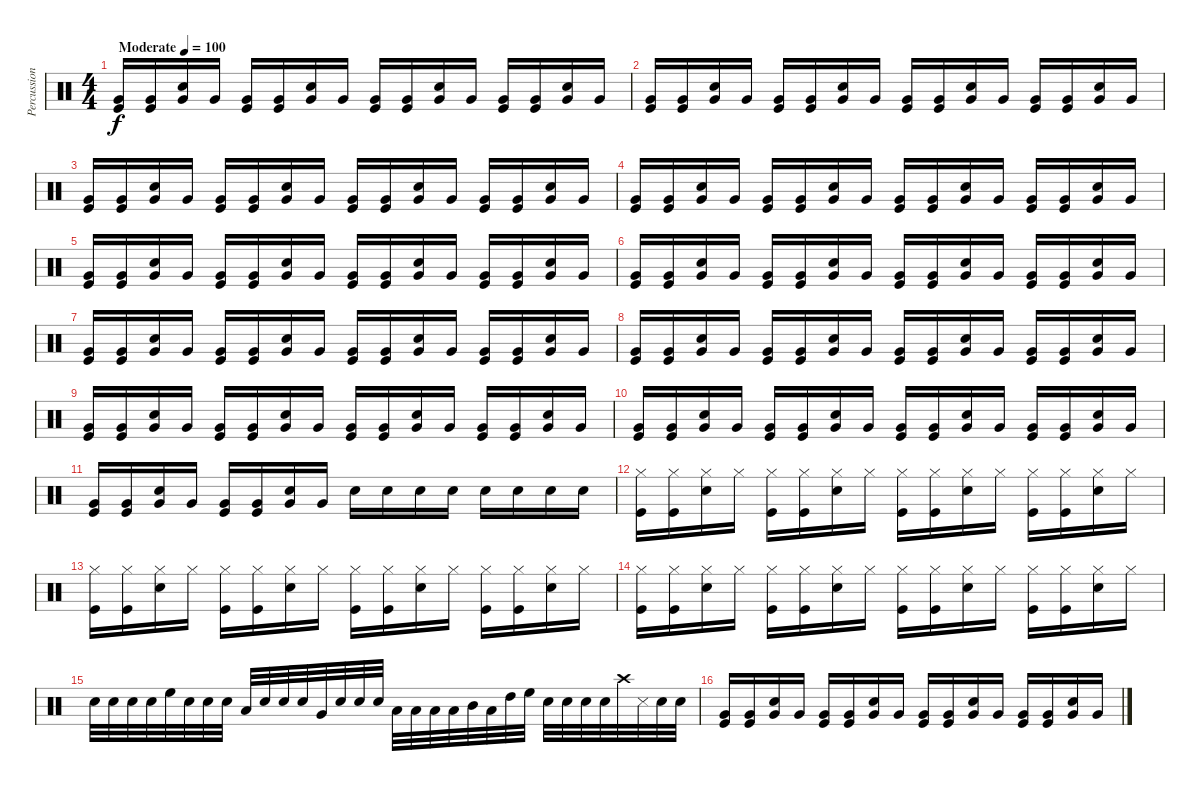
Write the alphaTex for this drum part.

\track ("Percussion" "Percussion") {instrument percussion}
\staff {score}
\articulation defaults
\ts (4 4)
\tempo (100 "Moderate")
\clef neutral
\ks c
("Very Low Tom (hit)" "Kick (hit)").16{dy f} ("Very Low Tom (hit)" "Kick (hit)").16 ("Very Low Tom (hit)" "Snare (hit) 2").16 "Very Low Tom (hit)".16 ("Very Low Tom (hit)" "Kick (hit)").16 ("Very Low Tom (hit)" "Kick (hit)").16 ("Very Low Tom (hit)" "Snare (hit) 2").16 "Very Low Tom (hit)".16 ("Very Low Tom (hit)" "Kick (hit)").16 ("Very Low Tom (hit)" "Kick (hit)").16 ("Very Low Tom (hit)" "Snare (hit) 2").16 "Very Low Tom (hit)".16 ("Very Low Tom (hit)" "Kick (hit)").16 ("Very Low Tom (hit)" "Kick (hit)").16 ("Very Low Tom (hit)" "Snare (hit) 2").16 "Very Low Tom (hit)".16 |
("Very Low Tom (hit)" "Kick (hit)").16 ("Very Low Tom (hit)" "Kick (hit)").16 ("Very Low Tom (hit)" "Snare (hit) 2").16 "Very Low Tom (hit)".16 ("Very Low Tom (hit)" "Kick (hit)").16 ("Very Low Tom (hit)" "Kick (hit)").16 ("Very Low Tom (hit)" "Snare (hit) 2").16 "Very Low Tom (hit)".16 ("Very Low Tom (hit)" "Kick (hit)").16 ("Very Low Tom (hit)" "Kick (hit)").16 ("Very Low Tom (hit)" "Snare (hit) 2").16 "Very Low Tom (hit)".16 ("Very Low Tom (hit)" "Kick (hit)").16 ("Very Low Tom (hit)" "Kick (hit)").16 ("Very Low Tom (hit)" "Snare (hit) 2").16 "Very Low Tom (hit)".16 |
("Very Low Tom (hit)" "Kick (hit)").16 ("Very Low Tom (hit)" "Kick (hit)").16 ("Very Low Tom (hit)" "Snare (hit) 2").16 "Very Low Tom (hit)".16 ("Very Low Tom (hit)" "Kick (hit)").16 ("Very Low Tom (hit)" "Kick (hit)").16 ("Very Low Tom (hit)" "Snare (hit) 2").16 "Very Low Tom (hit)".16 ("Very Low Tom (hit)" "Kick (hit)").16 ("Very Low Tom (hit)" "Kick (hit)").16 ("Very Low Tom (hit)" "Snare (hit) 2").16 "Very Low Tom (hit)".16 ("Very Low Tom (hit)" "Kick (hit)").16 ("Very Low Tom (hit)" "Kick (hit)").16 ("Very Low Tom (hit)" "Snare (hit) 2").16 "Very Low Tom (hit)".16 |
("Very Low Tom (hit)" "Kick (hit)").16 ("Very Low Tom (hit)" "Kick (hit)").16 ("Very Low Tom (hit)" "Snare (hit) 2").16 "Very Low Tom (hit)".16 ("Very Low Tom (hit)" "Kick (hit)").16 ("Very Low Tom (hit)" "Kick (hit)").16 ("Very Low Tom (hit)" "Snare (hit) 2").16 "Very Low Tom (hit)".16 ("Very Low Tom (hit)" "Kick (hit)").16 ("Very Low Tom (hit)" "Kick (hit)").16 ("Very Low Tom (hit)" "Snare (hit) 2").16 "Very Low Tom (hit)".16 ("Very Low Tom (hit)" "Kick (hit)").16 ("Very Low Tom (hit)" "Kick (hit)").16 ("Very Low Tom (hit)" "Snare (hit) 2").16 "Very Low Tom (hit)".16 |
("Very Low Tom (hit)" "Kick (hit)").16 ("Very Low Tom (hit)" "Kick (hit)").16 ("Very Low Tom (hit)" "Snare (hit) 2").16 "Very Low Tom (hit)".16 ("Very Low Tom (hit)" "Kick (hit)").16 ("Very Low Tom (hit)" "Kick (hit)").16 ("Very Low Tom (hit)" "Snare (hit) 2").16 "Very Low Tom (hit)".16 ("Very Low Tom (hit)" "Kick (hit)").16 ("Very Low Tom (hit)" "Kick (hit)").16 ("Very Low Tom (hit)" "Snare (hit) 2").16 "Very Low Tom (hit)".16 ("Very Low Tom (hit)" "Kick (hit)").16 ("Very Low Tom (hit)" "Kick (hit)").16 ("Very Low Tom (hit)" "Snare (hit) 2").16 "Very Low Tom (hit)".16 |
("Very Low Tom (hit)" "Kick (hit)").16 ("Very Low Tom (hit)" "Kick (hit)").16 ("Very Low Tom (hit)" "Snare (hit) 2").16 "Very Low Tom (hit)".16 ("Very Low Tom (hit)" "Kick (hit)").16 ("Very Low Tom (hit)" "Kick (hit)").16 ("Very Low Tom (hit)" "Snare (hit) 2").16 "Very Low Tom (hit)".16 ("Very Low Tom (hit)" "Kick (hit)").16 ("Very Low Tom (hit)" "Kick (hit)").16 ("Very Low Tom (hit)" "Snare (hit) 2").16 "Very Low Tom (hit)".16 ("Very Low Tom (hit)" "Kick (hit)").16 ("Very Low Tom (hit)" "Kick (hit)").16 ("Very Low Tom (hit)" "Snare (hit) 2").16 "Very Low Tom (hit)".16 |
("Very Low Tom (hit)" "Kick (hit)").16 ("Very Low Tom (hit)" "Kick (hit)").16 ("Very Low Tom (hit)" "Snare (hit) 2").16 "Very Low Tom (hit)".16 ("Very Low Tom (hit)" "Kick (hit)").16 ("Very Low Tom (hit)" "Kick (hit)").16 ("Very Low Tom (hit)" "Snare (hit) 2").16 "Very Low Tom (hit)".16 ("Very Low Tom (hit)" "Kick (hit)").16 ("Very Low Tom (hit)" "Kick (hit)").16 ("Very Low Tom (hit)" "Snare (hit) 2").16 "Very Low Tom (hit)".16 ("Very Low Tom (hit)" "Kick (hit)").16 ("Very Low Tom (hit)" "Kick (hit)").16 ("Very Low Tom (hit)" "Snare (hit) 2").16 "Very Low Tom (hit)".16 |
("Very Low Tom (hit)" "Kick (hit)").16 ("Very Low Tom (hit)" "Kick (hit)").16 ("Very Low Tom (hit)" "Snare (hit) 2").16 "Very Low Tom (hit)".16 ("Very Low Tom (hit)" "Kick (hit)").16 ("Very Low Tom (hit)" "Kick (hit)").16 ("Very Low Tom (hit)" "Snare (hit) 2").16 "Very Low Tom (hit)".16 ("Very Low Tom (hit)" "Kick (hit)").16 ("Very Low Tom (hit)" "Kick (hit)").16 ("Very Low Tom (hit)" "Snare (hit) 2").16 "Very Low Tom (hit)".16 ("Very Low Tom (hit)" "Kick (hit)").16 ("Very Low Tom (hit)" "Kick (hit)").16 ("Very Low Tom (hit)" "Snare (hit) 2").16 "Very Low Tom (hit)".16 |
("Very Low Tom (hit)" "Kick (hit)").16 ("Very Low Tom (hit)" "Kick (hit)").16 ("Very Low Tom (hit)" "Snare (hit) 2").16 "Very Low Tom (hit)".16 ("Very Low Tom (hit)" "Kick (hit)").16 ("Very Low Tom (hit)" "Kick (hit)").16 ("Very Low Tom (hit)" "Snare (hit) 2").16 "Very Low Tom (hit)".16 ("Very Low Tom (hit)" "Kick (hit)").16 ("Very Low Tom (hit)" "Kick (hit)").16 ("Very Low Tom (hit)" "Snare (hit) 2").16 "Very Low Tom (hit)".16 ("Very Low Tom (hit)" "Kick (hit)").16 ("Very Low Tom (hit)" "Kick (hit)").16 ("Very Low Tom (hit)" "Snare (hit) 2").16 "Very Low Tom (hit)".16 |
("Very Low Tom (hit)" "Kick (hit)").16 ("Very Low Tom (hit)" "Kick (hit)").16 ("Very Low Tom (hit)" "Snare (hit) 2").16 "Very Low Tom (hit)".16 ("Very Low Tom (hit)" "Kick (hit)").16 ("Very Low Tom (hit)" "Kick (hit)").16 ("Very Low Tom (hit)" "Snare (hit) 2").16 "Very Low Tom (hit)".16 ("Very Low Tom (hit)" "Kick (hit)").16 ("Very Low Tom (hit)" "Kick (hit)").16 ("Very Low Tom (hit)" "Snare (hit) 2").16 "Very Low Tom (hit)".16 ("Very Low Tom (hit)" "Kick (hit)").16 ("Very Low Tom (hit)" "Kick (hit)").16 ("Very Low Tom (hit)" "Snare (hit) 2").16 "Very Low Tom (hit)".16 |
("Very Low Tom (hit)" "Kick (hit)").16 ("Very Low Tom (hit)" "Kick (hit)").16 ("Very Low Tom (hit)" "Snare (hit) 2").16 "Very Low Tom (hit)".16 ("Very Low Tom (hit)" "Kick (hit)").16 ("Very Low Tom (hit)" "Kick (hit)").16 ("Very Low Tom (hit)" "Snare (hit) 2").16 "Very Low Tom (hit)".16 "Snare (hit) 2".16 "Snare (hit) 2".16 "Snare (hit) 2".16 "Snare (hit) 2".16 "Snare (hit) 2".16 "Snare (hit) 2".16 "Snare (hit) 2".16 "Snare (hit) 2".16 |
("Hi-Hat (closed)" "Kick (hit)").16 ("Hi-Hat (closed)" "Kick (hit)").16 ("Hi-Hat (closed)" "Snare (hit) 2").16 "Hi-Hat (closed)".16 ("Hi-Hat (closed)" "Kick (hit)").16 ("Hi-Hat (closed)" "Kick (hit)").16 ("Hi-Hat (closed)" "Snare (hit) 2").16 "Hi-Hat (closed)".16 ("Hi-Hat (closed)" "Kick (hit)").16 ("Hi-Hat (closed)" "Kick (hit)").16 ("Hi-Hat (closed)" "Snare (hit) 2").16 "Hi-Hat (closed)".16 ("Hi-Hat (closed)" "Kick (hit)").16 ("Hi-Hat (closed)" "Kick (hit)").16 ("Hi-Hat (closed)" "Snare (hit) 2").16 "Hi-Hat (closed)".16 |
("Hi-Hat (closed)" "Kick (hit)").16 ("Hi-Hat (closed)" "Kick (hit)").16 ("Hi-Hat (closed)" "Snare (hit) 2").16 "Hi-Hat (closed)".16 ("Hi-Hat (closed)" "Kick (hit)").16 ("Hi-Hat (closed)" "Kick (hit)").16 ("Hi-Hat (closed)" "Snare (hit) 2").16 "Hi-Hat (closed)".16 ("Hi-Hat (closed)" "Kick (hit)").16 ("Hi-Hat (closed)" "Kick (hit)").16 ("Hi-Hat (closed)" "Snare (hit) 2").16 "Hi-Hat (closed)".16 ("Hi-Hat (closed)" "Kick (hit)").16 ("Hi-Hat (closed)" "Kick (hit)").16 ("Hi-Hat (closed)" "Snare (hit) 2").16 "Hi-Hat (closed)".16 |
("Hi-Hat (closed)" "Kick (hit)").16 ("Hi-Hat (closed)" "Kick (hit)").16 ("Hi-Hat (closed)" "Snare (hit) 2").16 "Hi-Hat (closed)".16 ("Hi-Hat (closed)" "Kick (hit)").16 ("Hi-Hat (closed)" "Kick (hit)").16 ("Hi-Hat (closed)" "Snare (hit) 2").16 "Hi-Hat (closed)".16 ("Hi-Hat (closed)" "Kick (hit)").16 ("Hi-Hat (closed)" "Kick (hit)").16 ("Hi-Hat (closed)" "Snare (hit) 2").16 "Hi-Hat (closed)".16 ("Hi-Hat (closed)" "Kick (hit)").16 ("Hi-Hat (closed)" "Kick (hit)").16 ("Hi-Hat (closed)" "Snare (hit) 2").16 "Hi-Hat (closed)".16 |
"Snare (hit) 2".32 "Snare (hit) 2".32 "Snare (hit) 2".32 "Snare (hit) 2".32 "High Floor Tom (hit)".32 "Snare (hit) 2".32 "Snare (hit) 2".32 "Snare (hit) 2".32 "Low Tom (hit)".32 "Snare (hit) 2".32 "Snare (hit) 2".32 "Snare (hit) 2".32 "Very Low Tom (hit)".32 "Snare (hit) 2".32 "Snare (hit) 2".32 "Snare (hit) 2".32 "Low Floor Tom (hit)".32 "Low Floor Tom (hit)".32 "Low Floor Tom (hit)".32 "Low Floor Tom (hit)".32 "Mid Tom (hit)".32 "Low Tom (hit)".32 "High Tom (hit)".32 "High Floor Tom (hit)".32 "Snare (hit) 2".32 "Snare (hit) 2".32 "Snare (hit) 2".32 "Snare (hit) 2".32 "Crash high (hit)".32 "Snare (side stick) 3".32 "Snare (hit) 2".32 "Snare (hit) 2".32 |
("Very Low Tom (hit)" "Kick (hit)").16 ("Very Low Tom (hit)" "Kick (hit)").16 ("Very Low Tom (hit)" "Snare (hit) 2").16 "Very Low Tom (hit)".16 ("Very Low Tom (hit)" "Kick (hit)").16 ("Very Low Tom (hit)" "Kick (hit)").16 ("Very Low Tom (hit)" "Snare (hit) 2").16 "Very Low Tom (hit)".16 ("Very Low Tom (hit)" "Kick (hit)").16 ("Very Low Tom (hit)" "Kick (hit)").16 ("Very Low Tom (hit)" "Snare (hit) 2").16 "Very Low Tom (hit)".16 ("Very Low Tom (hit)" "Kick (hit)").16 ("Very Low Tom (hit)" "Kick (hit)").16 ("Very Low Tom (hit)" "Snare (hit) 2").16 "Very Low Tom (hit)".16
